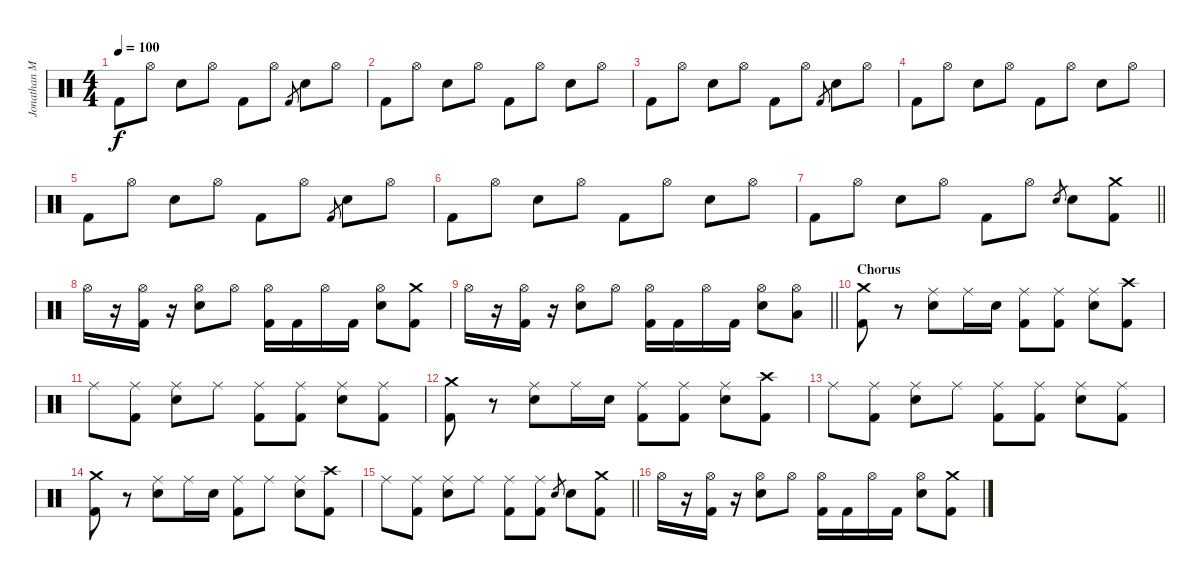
\track ("Jonathan Mover (Studio Drummer)" "Jonathan M") {instrument percussion}
\staff {score}
\articulation defaults
\ts (4 4)
\tempo 100
\clef neutral
\ks c "Kick (hit) 2".8{dy f} "Hi-Hat (open)".8 "Snare (hit) 2".8 "Hi-Hat (open)".8 "Kick (hit) 2".8 "Hi-Hat (open)".8 "Kick (hit) 2".8{gr} "Snare (hit) 2".8 "Hi-Hat (open)".8
|
"Kick (hit) 2".8 "Hi-Hat (open)".8 "Snare (hit) 2".8 "Hi-Hat (open)".8 "Kick (hit) 2".8 "Hi-Hat (open)".8 "Snare (hit) 2".8 "Hi-Hat (open)".8 |
"Kick (hit) 2".8 "Hi-Hat (open)".8 "Snare (hit) 2".8 "Hi-Hat (open)".8 "Kick (hit) 2".8 "Hi-Hat (open)".8 "Kick (hit) 2".8{gr} "Snare (hit) 2".8 "Hi-Hat (open)".8 |
"Kick (hit) 2".8 "Hi-Hat (open)".8 "Snare (hit) 2".8 "Hi-Hat (open)".8 "Kick (hit) 2".8 "Hi-Hat (open)".8 "Snare (hit) 2".8 "Hi-Hat (open)".8 |
"Kick (hit) 2".8 "Hi-Hat (open)".8 "Snare (hit) 2".8 "Hi-Hat (open)".8 "Kick (hit) 2".8 "Hi-Hat (open)".8 "Kick (hit) 2".8{gr} "Snare (hit) 2".8 "Hi-Hat (open)".8 |
"Kick (hit) 2".8 "Hi-Hat (open)".8 "Snare (hit) 2".8 "Hi-Hat (open)".8 "Kick (hit) 2".8 "Hi-Hat (open)".8 "Snare (hit) 2".8 "Hi-Hat (open)".8 |
\barLineRight lightlight "Kick (hit) 2".8 "Hi-Hat (open)".8 "Snare (hit) 2".8 "Hi-Hat (open)".8 "Kick (hit) 2".8 "Hi-Hat (open)".8 "Snare (hit) 2".8{gr} "Snare (hit) 2".8
("Crash medium (hit)" "Kick (hit) 2").8 |
"Hi-Hat (open)".16 r.16 ("Hi-Hat (open)" "Kick (hit) 2").16 r.16 ("Hi-Hat (open)" "Snare (hit) 2").8 "Hi-Hat (open)".8 ("Hi-Hat (open)" "Kick (hit) 2").16 "Kick (hit) 2".16 "Hi-Hat (open)".16 "Kick (hit) 2".16 ("Hi-Hat (open)" "Snare (hit) 2").8 ("Crash medium (hit)" "Kick (hit) 2").8 |
\barLineRight lightlight "Hi-Hat (open)".16
r.16 ("Hi-Hat (open)" "Kick (hit) 2").16 r.16 ("Hi-Hat (open)" "Snare (hit) 2").8 "Hi-Hat (open)".8 ("Hi-Hat (open)" "Kick (hit) 2").16 "Kick (hit) 2".16 "Hi-Hat (open)".16 "Kick (hit) 2".16 ("Hi-Hat (open)" "Snare (hit) 2").8 ("Hi-Hat (open)" "Low Tom (hit)").8 |
\section ("" "Chorus")
("Crash medium (hit)" "Kick (hit) 2").8 r.8 ("Ride (middle)" "Snare (hit) 2").8 "Ride (middle)".16 "Snare (hit) 2".16 ("Ride (middle)" "Kick (hit) 2").8 ("Ride (middle)" "Kick (hit) 2").8 ("Ride (middle)" "Snare (hit) 2").8 ("Crash high (hit)" "Kick (hit) 2").8 |
"Ride (middle)".8 ("Ride (middle)" "Kick (hit) 2").8 ("Ride (middle)" "Snare (hit) 2").8 "Ride (middle)".8 ("Ride (middle)" "Kick (hit) 2").8 ("Ride (middle)" "Kick (hit) 2").8 ("Ride (middle)" "Snare (hit) 2").8 ("Ride (middle)" "Kick (hit) 2").8 |
("Crash medium (hit)" "Kick (hit) 2").8 r.8 ("Ride (middle)" "Snare (hit) 2").8 "Ride (middle)".16 "Snare (hit) 2".16 ("Ride (middle)" "Kick (hit) 2").8 ("Ride (middle)" "Kick (hit) 2").8 ("Ride (middle)" "Snare (hit) 2").8 ("Crash high (hit)" "Kick (hit) 2").8 |
"Ride (middle)".8 ("Ride (middle)" "Kick (hit) 2").8 ("Ride (middle)" "Snare (hit) 2").8 "Ride (middle)".8 ("Ride (middle)" "Kick (hit) 2").8 ("Ride (middle)" "Kick (hit) 2").8 ("Ride (middle)" "Snare (hit) 2").8 ("Ride (middle)" "Kick (hit) 2").8 |
("Crash medium (hit)" "Kick (hit) 2").8 r.8 ("Ride (middle)" "Snare (hit) 2").8 "Ride (middle)".16 "Snare (hit) 2".16 ("Ride (middle)" "Kick (hit) 2").8 "Ride (middle)".8 ("Ride (middle)" "Snare (hit) 2").8 ("Crash high (hit)" "Kick (hit) 2").8 |
\barLineRight lightlight "Ride (middle)".8
("Ride (middle)" "Kick (hit) 2").8 ("Ride (middle)" "Snare (hit) 2").8 "Ride (middle)".8 ("Ride (middle)" "Kick (hit) 2").8 ("Ride (middle)" "Kick (hit) 2").8 "Snare (hit) 2".8{gr} "Snare (hit) 2".8 ("Crash medium (hit)" "Kick (hit) 2").8 |
"Hi-Hat (open)".16 r.16 ("Hi-Hat (open)" "Kick (hit) 2").16 r.16 ("Hi-Hat (open)" "Snare (hit) 2").8 "Hi-Hat (open)".8 ("Hi-Hat (open)" "Kick (hit) 2").16 "Kick (hit) 2".16 "Hi-Hat (open)".16 "Kick (hit) 2".16 ("Hi-Hat (open)" "Snare (hit) 2").8 ("Crash medium (hit)" "Kick (hit) 2").8
